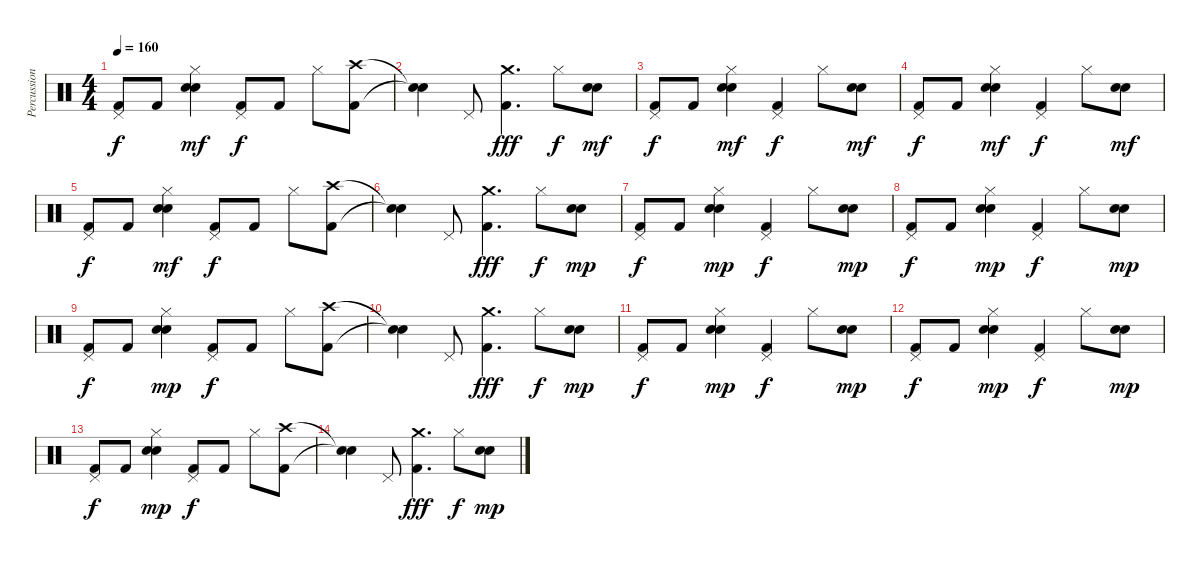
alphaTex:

\track ("Percussion" "Percussion") {instrument percussion}
\staff {score}
\articulation defaults
\ts (4 4)
\tempo 160
\clef neutral
\ks c
("Kick (hit) 2" "Pedal Hi-Hat (hit)").8{dy f} "Kick (hit) 2".8 ("Snare (hit) 2" "Hi-Hat (closed)" "Electric Snare (hit)").4{dy mf} ("Kick (hit) 2" "Pedal Hi-Hat (hit)").8{dy f} "Kick (hit) 2".8 "Hi-Hat (closed)".8 ("Crash high (hit)" "Kick (hit) 2").8 |
("Snare (hit)"{t} "Snare (hit)"{t}).4 "Pedal Hi-Hat (hit)".8 ("Crash medium (hit)" "Kick (hit) 2").4{d dy fff} "Hi-Hat (closed)".8{dy f} ("Snare (hit) 2" "Electric Snare (hit)").8{dy mf} |
("Pedal Hi-Hat (hit)" "Kick (hit) 2").8{dy f} "Kick (hit) 2".8 ("Hi-Hat (closed)" "Snare (hit) 2" "Electric Snare (hit)").4{dy mf} ("Pedal Hi-Hat (hit)" "Kick (hit) 2").4{dy f} "Hi-Hat (closed)".8 ("Snare (hit) 2" "Electric Snare (hit)").8{dy mf} |
("Pedal Hi-Hat (hit)" "Kick (hit) 2").8{dy f} "Kick (hit) 2".8 ("Hi-Hat (closed)" "Snare (hit) 2" "Electric Snare (hit)").4{dy mf} ("Pedal Hi-Hat (hit)" "Kick (hit) 2").4{dy f} "Hi-Hat (closed)".8 ("Snare (hit) 2" "Electric Snare (hit)").8{dy mf} |
("Kick (hit) 2" "Pedal Hi-Hat (hit)").8{dy f} "Kick (hit) 2".8 ("Snare (hit) 2" "Hi-Hat (closed)" "Electric Snare (hit)").4{dy mf} ("Kick (hit) 2" "Pedal Hi-Hat (hit)").8{dy f} "Kick (hit) 2".8 "Hi-Hat (closed)".8 ("Crash high (hit)" "Kick (hit) 2").8 |
("Snare (hit)"{t} "Snare (hit)"{t}).4 "Pedal Hi-Hat (hit)".8 ("Crash medium (hit)" "Kick (hit) 2").4{d dy fff} "Hi-Hat (closed)".8{dy f} ("Snare (hit) 2" "Electric Snare (hit)").8{dy mp} |
("Pedal Hi-Hat (hit)" "Kick (hit) 2").8{dy f} "Kick (hit) 2".8 ("Hi-Hat (closed)" "Snare (hit) 2" "Electric Snare (hit)").4{dy mp} ("Pedal Hi-Hat (hit)" "Kick (hit) 2").4{dy f} "Hi-Hat (closed)".8 ("Snare (hit) 2" "Electric Snare (hit)").8{dy mp} |
("Pedal Hi-Hat (hit)" "Kick (hit) 2").8{dy f volume 10} "Kick (hit) 2".8 ("Hi-Hat (closed)" "Snare (hit) 2" "Electric Snare (hit)").4{dy mp} ("Pedal Hi-Hat (hit)" "Kick (hit) 2").4{dy f} "Hi-Hat (closed)".8 ("Snare (hit) 2" "Electric Snare (hit)").8{dy mp} |
("Kick (hit) 2" "Pedal Hi-Hat (hit)").8{dy f} "Kick (hit) 2".8 ("Snare (hit) 2" "Hi-Hat (closed)" "Electric Snare (hit)").4{dy mp} ("Kick (hit) 2" "Pedal Hi-Hat (hit)").8{dy f} "Kick (hit) 2".8 "Hi-Hat (closed)".8 ("Crash high (hit)" "Kick (hit) 2").8 |
("Snare (hit)"{t} "Snare (hit)"{t}).4{volume 3} "Pedal Hi-Hat (hit)".8 ("Crash medium (hit)" "Kick (hit) 2").4{d dy fff} "Hi-Hat (closed)".8{dy f} ("Snare (hit) 2" "Electric Snare (hit)").8{dy mp} |
("Pedal Hi-Hat (hit)" "Kick (hit) 2").8{dy f} "Kick (hit) 2".8 ("Hi-Hat (closed)" "Snare (hit) 2" "Electric Snare (hit)").4{dy mp} ("Pedal Hi-Hat (hit)" "Kick (hit) 2").4{dy f} "Hi-Hat (closed)".8 ("Snare (hit) 2" "Electric Snare (hit)").8{dy mp} |
("Pedal Hi-Hat (hit)" "Kick (hit) 2").8{dy f volume 0} "Kick (hit) 2".8 ("Hi-Hat (closed)" "Snare (hit) 2" "Electric Snare (hit)").4{dy mp} ("Pedal Hi-Hat (hit)" "Kick (hit) 2").4{dy f} "Hi-Hat (closed)".8 ("Snare (hit) 2" "Electric Snare (hit)").8{dy mp} |
("Kick (hit) 2" "Pedal Hi-Hat (hit)").8{dy f} "Kick (hit) 2".8 ("Snare (hit) 2" "Hi-Hat (closed)" "Electric Snare (hit)").4{dy mp} ("Kick (hit) 2" "Pedal Hi-Hat (hit)").8{dy f} "Kick (hit) 2".8 "Hi-Hat (closed)".8 ("Crash high (hit)" "Kick (hit) 2").8 |
("Snare (hit)"{t} "Snare (hit)"{t}).4 "Pedal Hi-Hat (hit)".8 ("Crash medium (hit)" "Kick (hit) 2").4{d dy fff} "Hi-Hat (closed)".8{dy f} ("Snare (hit) 2" "Electric Snare (hit)").8{dy mp}
